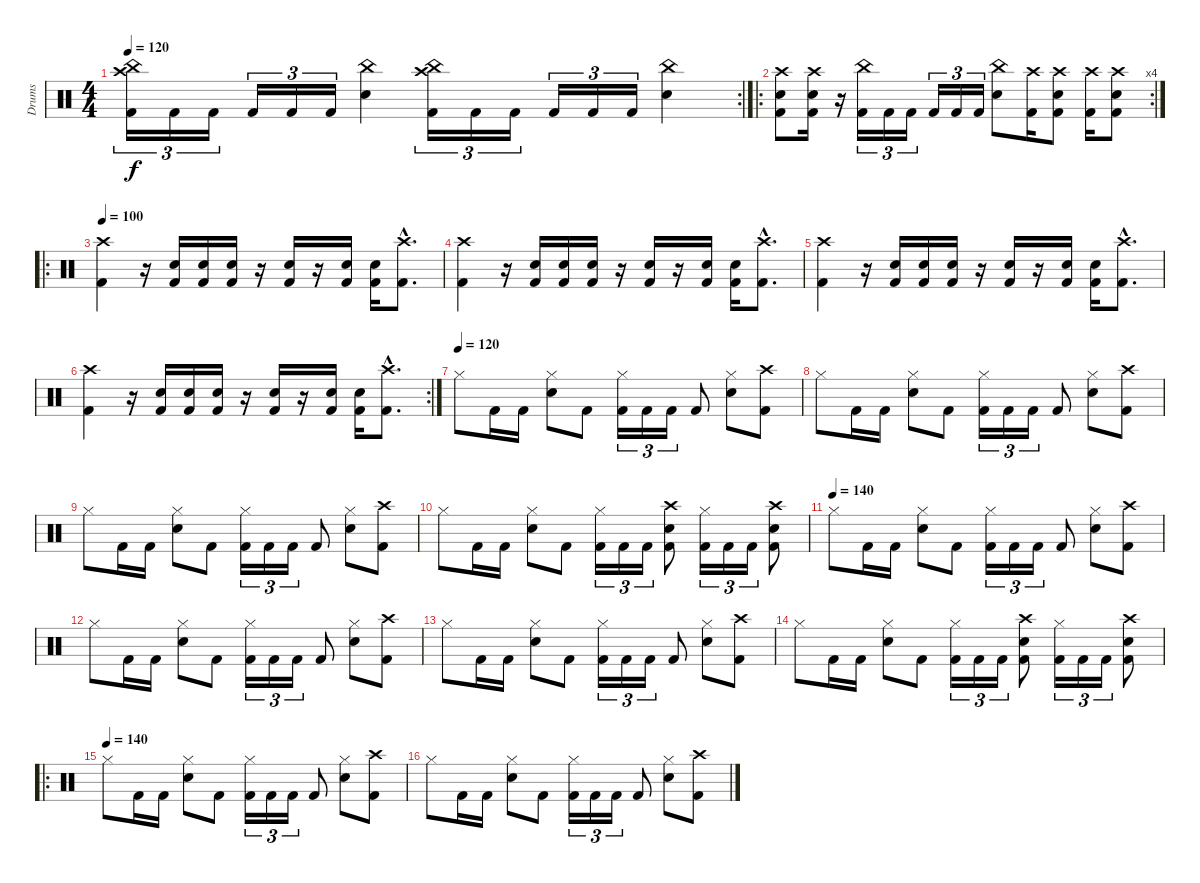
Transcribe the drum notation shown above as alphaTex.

\track ("Drums" "Drums") {instrument percussion}
\staff {score}
\articulation defaults
\rc 2
\ts (4 4)
\tempo 120
\clef neutral
\ks c
("Crash high (hit)" "China (hit)" "Kick (hit) 2").16{tu (3 2) dy f} "Kick (hit) 2".16{tu (3 2)} "Kick (hit) 2".16{tu (3 2)} "Kick (hit) 2".16{tu (3 2)} "Kick (hit) 2".16{tu (3 2)} "Kick (hit) 2".16{tu (3 2)} ("China (hit)" "Snare (hit) 2").4 ("Crash high (hit)" "China (hit)" "Kick (hit) 2").16{tu (3 2)} "Kick (hit) 2".16{tu (3 2)} "Kick (hit) 2".16{tu (3 2)} "Kick (hit) 2".16{tu (3 2)} "Kick (hit) 2".16{tu (3 2)} "Kick (hit) 2".16{tu (3 2)} ("China (hit)" "Snare (hit) 2").4 |
\ro
\rc 4
("Crash high (hit)" "Snare (hit) 2" "Kick (hit) 2").8 ("Crash high (hit)" "Snare (hit) 2" "Kick (hit) 2").16 r.16 ("China (hit)" "Kick (hit) 2").16{tu (3 2)} "Kick (hit) 2".16{tu (3 2)} "Kick (hit) 2".16{tu (3 2)} "Kick (hit) 2".16{tu (3 2)} "Kick (hit) 2".16{tu (3 2)} "Kick (hit) 2".16{tu (3 2)} ("China (hit)" "Snare (hit) 2").8 ("Crash high (hit)" "Kick (hit) 2").16 ("Crash high (hit)" "Snare (hit) 2" "Kick (hit) 2").8 ("Crash high (hit)" "Kick (hit) 2").16 ("Crash high (hit)" "Snare (hit) 2" "Kick (hit) 2").8 |
\ro
\tempo 100
("Crash high (hit)" "Kick (hit) 2").4 r.16 ("Snare (hit) 2" "Kick (hit) 2").16 ("Snare (hit) 2" "Kick (hit) 2").16 ("Snare (hit) 2" "Kick (hit) 2").16 r.16 ("Snare (hit) 2" "Kick (hit) 2").16 r.16 ("Snare (hit) 2" "Kick (hit) 2").16 ("Snare (hit) 2" "Kick (hit) 2").16 ("Crash high (hit)"{hac} "Kick (hit) 2"{hac}).8{d} |
("Crash high (hit)" "Kick (hit) 2").4 r.16 ("Snare (hit) 2" "Kick (hit) 2").16 ("Snare (hit) 2" "Kick (hit) 2").16 ("Snare (hit) 2" "Kick (hit) 2").16 r.16 ("Snare (hit) 2" "Kick (hit) 2").16 r.16 ("Snare (hit) 2" "Kick (hit) 2").16 ("Snare (hit) 2" "Kick (hit) 2").16 ("Crash high (hit)"{hac} "Kick (hit) 2"{hac}).8{d} |
("Crash high (hit)" "Kick (hit) 2").4 r.16 ("Snare (hit) 2" "Kick (hit) 2").16 ("Snare (hit) 2" "Kick (hit) 2").16 ("Snare (hit) 2" "Kick (hit) 2").16 r.16 ("Snare (hit) 2" "Kick (hit) 2").16 r.16 ("Snare (hit) 2" "Kick (hit) 2").16 ("Snare (hit) 2" "Kick (hit) 2").16 ("Crash high (hit)"{hac} "Kick (hit) 2"{hac}).8{d} |
\rc 2
("Crash high (hit)" "Kick (hit) 2").4 r.16 ("Snare (hit) 2" "Kick (hit) 2").16 ("Snare (hit) 2" "Kick (hit) 2").16 ("Snare (hit) 2" "Kick (hit) 2").16 r.16 ("Snare (hit) 2" "Kick (hit) 2").16 r.16 ("Snare (hit) 2" "Kick (hit) 2").16 ("Snare (hit) 2" "Kick (hit) 2").16 ("Crash high (hit)"{hac} "Kick (hit) 2"{hac}).8{d} |
\tempo (120)
"Hi-Hat (closed)".8 "Kick (hit) 2".16 "Kick (hit) 2".16 ("Hi-Hat (closed)" "Snare (hit) 2").8 "Kick (hit) 2".8 ("Hi-Hat (closed)" "Kick (hit) 2").16{tu (3 2)} "Kick (hit) 2".16{tu (3 2)} "Kick (hit) 2".16{tu (3 2)} "Kick (hit) 2".8 ("Hi-Hat (closed)" "Snare (hit) 2").8 ("Crash high (hit)" "Kick (hit) 2").8 |
"Hi-Hat (closed)".8 "Kick (hit) 2".16 "Kick (hit) 2".16 ("Hi-Hat (closed)" "Snare (hit) 2").8 "Kick (hit) 2".8 ("Hi-Hat (closed)" "Kick (hit) 2").16{tu (3 2)} "Kick (hit) 2".16{tu (3 2)} "Kick (hit) 2".16{tu (3 2)} "Kick (hit) 2".8 ("Hi-Hat (closed)" "Snare (hit) 2").8 ("Crash high (hit)" "Kick (hit) 2").8 |
"Hi-Hat (closed)".8 "Kick (hit) 2".16 "Kick (hit) 2".16 ("Hi-Hat (closed)" "Snare (hit) 2").8 "Kick (hit) 2".8 ("Hi-Hat (closed)" "Kick (hit) 2").16{tu (3 2)} "Kick (hit) 2".16{tu (3 2)} "Kick (hit) 2".16{tu (3 2)} "Kick (hit) 2".8 ("Hi-Hat (closed)" "Snare (hit) 2").8 ("Crash high (hit)" "Kick (hit) 2").8 |
"Hi-Hat (closed)".8 "Kick (hit) 2".16 "Kick (hit) 2".16 ("Hi-Hat (closed)" "Snare (hit) 2").8 "Kick (hit) 2".8 ("Hi-Hat (closed)" "Kick (hit) 2").16{tu (3 2)} "Kick (hit) 2".16{tu (3 2)} "Kick (hit) 2".16{tu (3 2)} ("Crash high (hit)" "Snare (hit) 2" "Kick (hit) 2").8 ("Hi-Hat (closed)" "Kick (hit) 2").16{tu (3 2)} "Kick (hit) 2".16{tu (3 2)} "Kick (hit) 2".16{tu (3 2)} ("Crash high (hit)" "Snare (hit) 2" "Kick (hit) 2").8 |
\tempo (140)
"Hi-Hat (closed)".8 "Kick (hit) 2".16 "Kick (hit) 2".16 ("Hi-Hat (closed)" "Snare (hit) 2").8 "Kick (hit) 2".8 ("Hi-Hat (closed)" "Kick (hit) 2").16{tu (3 2)} "Kick (hit) 2".16{tu (3 2)} "Kick (hit) 2".16{tu (3 2)} "Kick (hit) 2".8 ("Hi-Hat (closed)" "Snare (hit) 2").8 ("Crash high (hit)" "Kick (hit) 2").8 |
"Hi-Hat (closed)".8 "Kick (hit) 2".16 "Kick (hit) 2".16 ("Hi-Hat (closed)" "Snare (hit) 2").8 "Kick (hit) 2".8 ("Hi-Hat (closed)" "Kick (hit) 2").16{tu (3 2)} "Kick (hit) 2".16{tu (3 2)} "Kick (hit) 2".16{tu (3 2)} "Kick (hit) 2".8 ("Hi-Hat (closed)" "Snare (hit) 2").8 ("Crash high (hit)" "Kick (hit) 2").8 |
"Hi-Hat (closed)".8 "Kick (hit) 2".16 "Kick (hit) 2".16 ("Hi-Hat (closed)" "Snare (hit) 2").8 "Kick (hit) 2".8 ("Hi-Hat (closed)" "Kick (hit) 2").16{tu (3 2)} "Kick (hit) 2".16{tu (3 2)} "Kick (hit) 2".16{tu (3 2)} "Kick (hit) 2".8 ("Hi-Hat (closed)" "Snare (hit) 2").8 ("Crash high (hit)" "Kick (hit) 2").8 |
"Hi-Hat (closed)".8 "Kick (hit) 2".16 "Kick (hit) 2".16 ("Hi-Hat (closed)" "Snare (hit) 2").8 "Kick (hit) 2".8 ("Hi-Hat (closed)" "Kick (hit) 2").16{tu (3 2)} "Kick (hit) 2".16{tu (3 2)} "Kick (hit) 2".16{tu (3 2)} ("Crash high (hit)" "Snare (hit) 2" "Kick (hit) 2").8 ("Hi-Hat (closed)" "Kick (hit) 2").16{tu (3 2)} "Kick (hit) 2".16{tu (3 2)} "Kick (hit) 2".16{tu (3 2)} ("Crash high (hit)" "Snare (hit) 2" "Kick (hit) 2").8 |
\ro
\tempo (140)
"Hi-Hat (closed)".8 "Kick (hit) 2".16 "Kick (hit) 2".16 ("Hi-Hat (closed)" "Snare (hit) 2").8 "Kick (hit) 2".8 ("Hi-Hat (closed)" "Kick (hit) 2").16{tu (3 2)} "Kick (hit) 2".16{tu (3 2)} "Kick (hit) 2".16{tu (3 2)} "Kick (hit) 2".8 ("Hi-Hat (closed)" "Snare (hit) 2").8 ("Crash high (hit)" "Kick (hit) 2").8 |
"Hi-Hat (closed)".8 "Kick (hit) 2".16 "Kick (hit) 2".16 ("Hi-Hat (closed)" "Snare (hit) 2").8 "Kick (hit) 2".8 ("Hi-Hat (closed)" "Kick (hit) 2").16{tu (3 2)} "Kick (hit) 2".16{tu (3 2)} "Kick (hit) 2".16{tu (3 2)} "Kick (hit) 2".8 ("Hi-Hat (closed)" "Snare (hit) 2").8 ("Crash high (hit)" "Kick (hit) 2").8
